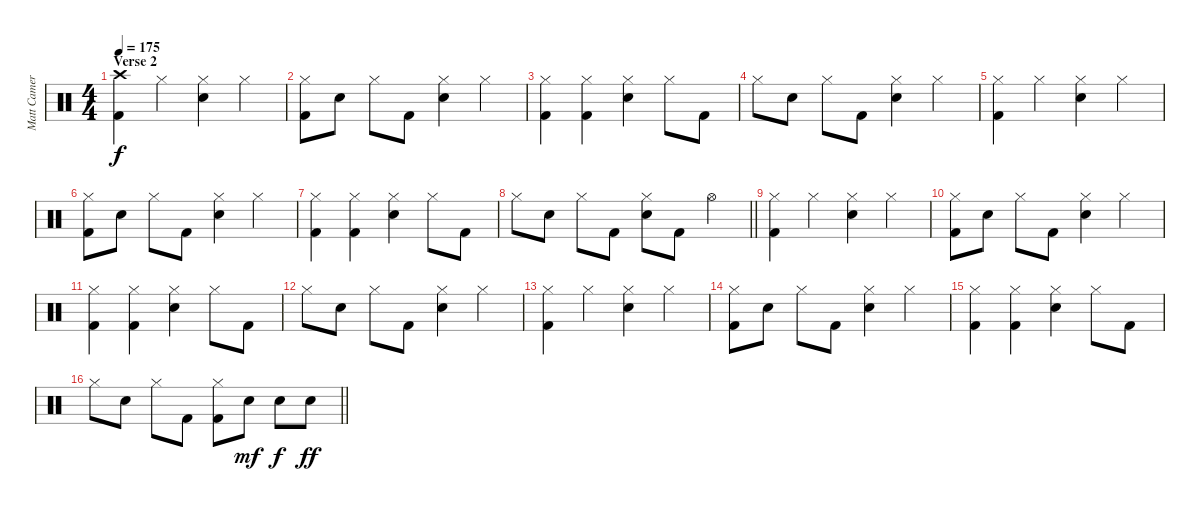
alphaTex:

\track ("Matt Cameron Drum" "Matt Camer") {instrument percussion}
\staff {score}
\articulation defaults
\ts (4 4)
\section ("" "Verse 2")
\tempo 175
\clef neutral
\ks c
("Crash high (hit)" "Kick (hit) 2").4{dy f} "Hi-Hat (closed)".4 ("Hi-Hat (closed)" "Electric Snare (hit)").4 "Hi-Hat (closed)".4 |
("Hi-Hat (closed)" "Kick (hit) 2").8 "Electric Snare (hit)".8 "Hi-Hat (closed)".8 "Kick (hit) 2".8 ("Hi-Hat (closed)" "Electric Snare (hit)").4 "Hi-Hat (closed)".4 |
("Hi-Hat (closed)" "Kick (hit) 2").4 ("Hi-Hat (closed)" "Kick (hit) 2").4 ("Hi-Hat (closed)" "Electric Snare (hit)").4 "Hi-Hat (closed)".8 "Kick (hit) 2".8 |
"Hi-Hat (closed)".8 "Electric Snare (hit)".8 "Hi-Hat (closed)".8 "Kick (hit) 2".8 ("Hi-Hat (closed)" "Electric Snare (hit)").4 "Hi-Hat (closed)".4 |
("Hi-Hat (closed)" "Kick (hit) 2").4 "Hi-Hat (closed)".4 ("Hi-Hat (closed)" "Electric Snare (hit)").4 "Hi-Hat (closed)".4 |
("Hi-Hat (closed)" "Kick (hit) 2").8 "Electric Snare (hit)".8 "Hi-Hat (closed)".8 "Kick (hit) 2".8 ("Hi-Hat (closed)" "Electric Snare (hit)").4 "Hi-Hat (closed)".4 |
("Hi-Hat (closed)" "Kick (hit) 2").4 ("Hi-Hat (closed)" "Kick (hit) 2").4 ("Hi-Hat (closed)" "Electric Snare (hit)").4 "Hi-Hat (closed)".8 "Kick (hit) 2".8 |
\barLineRight lightlight "Hi-Hat (closed)".8 "Electric Snare (hit)".8 "Hi-Hat (closed)".8 "Kick (hit) 2".8
("Hi-Hat (closed)" "Electric Snare (hit)").8 "Kick (hit) 2".8 "Hi-Hat (open)".4 |
("Hi-Hat (closed)" "Kick (hit) 2").4 "Hi-Hat (closed)".4 ("Hi-Hat (closed)" "Electric Snare (hit)").4 "Hi-Hat (closed)".4 |
("Hi-Hat (closed)" "Kick (hit) 2").8 "Electric Snare (hit)".8 "Hi-Hat (closed)".8 "Kick (hit) 2".8 ("Hi-Hat (closed)" "Electric Snare (hit)").4 "Hi-Hat (closed)".4 |
("Hi-Hat (closed)" "Kick (hit) 2").4 ("Hi-Hat (closed)" "Kick (hit) 2").4 ("Hi-Hat (closed)" "Electric Snare (hit)").4 "Hi-Hat (closed)".8 "Kick (hit) 2".8 |
"Hi-Hat (closed)".8 "Electric Snare (hit)".8 "Hi-Hat (closed)".8 "Kick (hit) 2".8 ("Hi-Hat (closed)" "Electric Snare (hit)").4 "Hi-Hat (closed)".4 |
("Hi-Hat (closed)" "Kick (hit) 2").4 "Hi-Hat (closed)".4 ("Hi-Hat (closed)" "Electric Snare (hit)").4 "Hi-Hat (closed)".4 |
("Hi-Hat (closed)" "Kick (hit) 2").8 "Electric Snare (hit)".8 "Hi-Hat (closed)".8 "Kick (hit) 2".8 ("Hi-Hat (closed)" "Electric Snare (hit)").4 "Hi-Hat (closed)".4 |
("Hi-Hat (closed)" "Kick (hit) 2").4 ("Hi-Hat (closed)" "Kick (hit) 2").4 ("Hi-Hat (closed)" "Electric Snare (hit)").4 "Hi-Hat (closed)".8 "Kick (hit) 2".8 |
\barLineRight lightlight "Hi-Hat (closed)".8 "Electric Snare (hit)".8 "Hi-Hat (closed)".8 "Kick (hit) 2".8
("Hi-Hat (closed)" "Kick (hit) 2").8 "Electric Snare (hit)".8{dy mf} "Electric Snare (hit)".8{dy f} "Electric Snare (hit)".8{dy ff}
